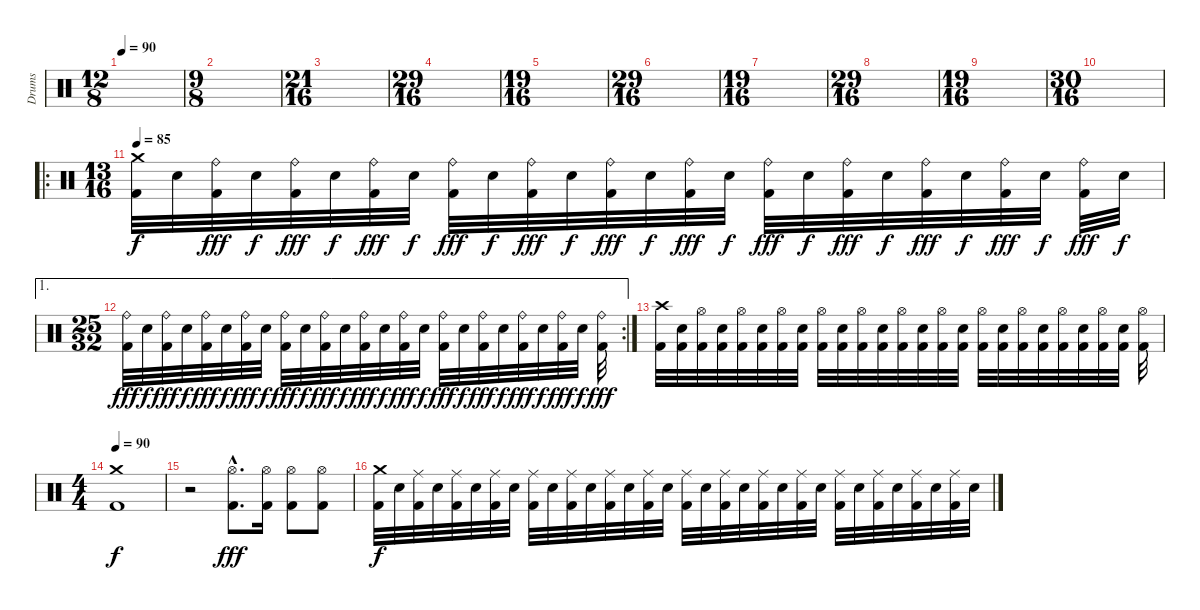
\track ("Drums" "Drums") {instrument percussion}
\staff {score}
\articulation defaults
\ts (12 8)
\tempo 90
\clef neutral
\ks c
|
\ts (9 8)
|
\ts (21 16)
|
\ts (29 16)
|
\ts (19 16)
|
\ts (29 16)
|
\ts (19 16)
|
\ts (29 16)
|
\ts (19 16)
|
\ts (30 16)
|
\ro
\ts (13 16)
\tempo 85
("Crash medium (hit)" "Kick (hit) 2").32 "Electric Snare (hit)".32{dy f} ("Ride (bell)" "Kick (hit) 2").32{dy fff} "Electric Snare (hit)".32{dy f} ("Ride (bell)" "Kick (hit) 2").32{dy fff} "Electric Snare (hit)".32{dy f} ("Ride (bell)" "Kick (hit) 2").32{dy fff} "Electric Snare (hit)".32{dy f} ("Ride (bell)" "Kick (hit) 2").32{dy fff} "Electric Snare (hit)".32{dy f} ("Ride (bell)" "Kick (hit) 2").32{dy fff} "Electric Snare (hit)".32{dy f} ("Ride (bell)" "Kick (hit) 2").32{dy fff} "Electric Snare (hit)".32{dy f} ("Ride (bell)" "Kick (hit) 2").32{dy fff} "Electric Snare (hit)".32{dy f} ("Ride (bell)" "Kick (hit) 2").32{dy fff} "Electric Snare (hit)".32{dy f} ("Ride (bell)" "Kick (hit) 2").32{dy fff} "Electric Snare (hit)".32{dy f} ("Ride (bell)" "Kick (hit) 2").32{dy fff} "Electric Snare (hit)".32{dy f} ("Ride (bell)" "Kick (hit) 2").32{dy fff} "Electric Snare (hit)".32{dy f} ("Ride (bell)" "Kick (hit) 2").32{dy fff} "Electric Snare (hit)".32{dy f} |
\ae 1
\rc 2
\ts (25 32)
("Ride (bell)" "Kick (hit) 2").32{dy fff} "Electric Snare (hit)".32{dy f} ("Ride (bell)" "Kick (hit) 2").32{dy fff} "Electric Snare (hit)".32{dy f} ("Ride (bell)" "Kick (hit) 2").32{dy fff} "Electric Snare (hit)".32{dy f} ("Ride (bell)" "Kick (hit) 2").32{dy fff} "Electric Snare (hit)".32{dy f} ("Ride (bell)" "Kick (hit) 2").32{dy fff} "Electric Snare (hit)".32{dy f} ("Ride (bell)" "Kick (hit) 2").32{dy fff} "Electric Snare (hit)".32{dy f} ("Ride (bell)" "Kick (hit) 2").32{dy fff} "Electric Snare (hit)".32{dy f} ("Ride (bell)" "Kick (hit) 2").32{dy fff} "Electric Snare (hit)".32{dy f} ("Ride (bell)" "Kick (hit) 2").32{dy fff} "Electric Snare (hit)".32{dy f} ("Ride (bell)" "Kick (hit) 2").32{dy fff} "Electric Snare (hit)".32{dy f} ("Ride (bell)" "Kick (hit) 2").32{dy fff} "Electric Snare (hit)".32{dy f} ("Ride (bell)" "Kick (hit) 2").32{dy fff} "Electric Snare (hit)".32{dy f} ("Ride (bell)" "Kick (hit) 2").32{dy fff} |
("Crash high (hit)" "Kick (hit) 2").32 ("Electric Snare (hit)" "Kick (hit) 2").32 ("Hi-Hat (open)" "Kick (hit) 2").32 ("Electric Snare (hit)" "Kick (hit) 2").32 ("Hi-Hat (open)" "Kick (hit) 2").32 ("Electric Snare (hit)" "Kick (hit) 2").32 ("Hi-Hat (open)" "Kick (hit) 2").32 ("Electric Snare (hit)" "Kick (hit) 2").32 ("Hi-Hat (open)" "Kick (hit) 2").32 ("Electric Snare (hit)" "Kick (hit) 2").32 ("Hi-Hat (open)" "Kick (hit) 2").32 ("Electric Snare (hit)" "Kick (hit) 2").32 ("Hi-Hat (open)" "Kick (hit) 2").32 ("Electric Snare (hit)" "Kick (hit) 2").32 ("Hi-Hat (open)" "Kick (hit) 2").32 ("Electric Snare (hit)" "Kick (hit) 2").32 ("Hi-Hat (open)" "Kick (hit) 2").32 ("Electric Snare (hit)" "Kick (hit) 2").32 ("Hi-Hat (open)" "Kick (hit) 2").32 ("Electric Snare (hit)" "Kick (hit) 2").32 ("Hi-Hat (open)" "Kick (hit) 2").32 ("Electric Snare (hit)" "Kick (hit) 2").32 ("Hi-Hat (open)" "Kick (hit) 2").32 ("Electric Snare (hit)" "Kick (hit) 2").32 ("Hi-Hat (open)" "Kick (hit) 2").32 |
\ts (4 4)
\tempo 90
("Crash medium (hit)" "Kick (hit) 2").1{dy f} |
r.2 ("Hi-Hat (open)"{hac} "Kick (hit) 2"{hac}).8{d dy fff} ("Hi-Hat (open)" "Kick (hit) 2").16 ("Hi-Hat (open)" "Kick (hit) 2").8 ("Hi-Hat (open)" "Kick (hit) 2").8 |
("Crash medium (hit)" "Kick (hit) 2").32{dy f} "Electric Snare (hit)".32 ("Ride (middle)" "Kick (hit) 2").32 "Electric Snare (hit)".32 ("Ride (middle)" "Kick (hit) 2").32 "Electric Snare (hit)".32 ("Ride (middle)" "Kick (hit) 2").32 "Electric Snare (hit)".32 ("Ride (middle)" "Kick (hit) 2").32 "Electric Snare (hit)".32 ("Ride (middle)" "Kick (hit) 2").32 "Electric Snare (hit)".32 ("Ride (middle)" "Kick (hit) 2").32 "Electric Snare (hit)".32 ("Ride (middle)" "Kick (hit) 2").32 "Electric Snare (hit)".32 ("Ride (middle)" "Kick (hit) 2").32 "Electric Snare (hit)".32 ("Ride (middle)" "Kick (hit) 2").32 "Electric Snare (hit)".32 ("Ride (middle)" "Kick (hit) 2").32 "Electric Snare (hit)".32 ("Ride (middle)" "Kick (hit) 2").32 "Electric Snare (hit)".32 ("Ride (middle)" "Kick (hit) 2").32 "Electric Snare (hit)".32 ("Ride (middle)" "Kick (hit) 2").32 "Electric Snare (hit)".32 ("Ride (middle)" "Kick (hit) 2").32 "Electric Snare (hit)".32 ("Ride (middle)" "Kick (hit) 2").32 "Electric Snare (hit)".32
